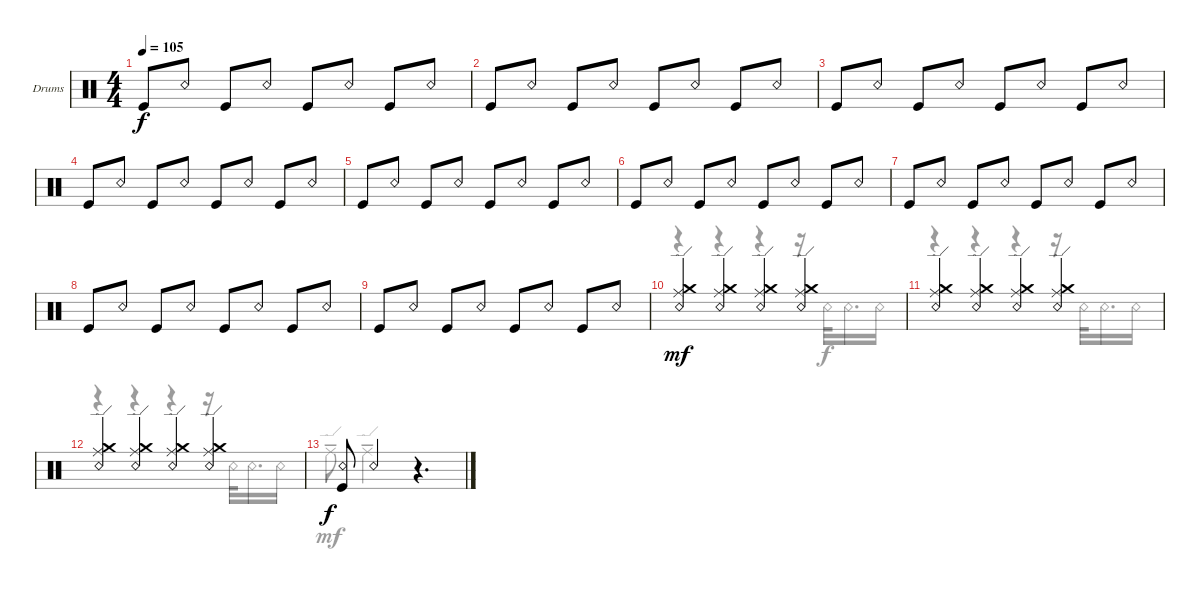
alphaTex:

\bracketExtendMode groupsimilarinstruments
\firstSystemTrackNameOrientation horizontal
\otherSystemsTrackNameOrientation horizontal
\track ("Drumkit" "Drums") {instrument percussion}
\staff {score}
\articulation defaults
\voice
\ts (4 4)
\tempo 105
\clef neutral
\ks c "Kick (hit)".8{dy f} "Snare (rim shot)".8 "Kick (hit)".8 "Snare (rim shot)".8 "Kick (hit)".8 "Snare (rim shot)".8 "Kick (hit)".8 "Snare (rim shot)".8
|
"Kick (hit)".8 "Snare (rim shot)".8 "Kick (hit)".8 "Snare (rim shot)".8 "Kick (hit)".8 "Snare (rim shot)".8 "Kick (hit)".8 "Snare (rim shot)".8 |
"Kick (hit)".8 "Snare (rim shot)".8 "Kick (hit)".8 "Snare (rim shot)".8 "Kick (hit)".8 "Snare (rim shot)".8 "Kick (hit)".8 "Snare (rim shot)".8 |
"Kick (hit)".8 "Snare (rim shot)".8 "Kick (hit)".8 "Snare (rim shot)".8 "Kick (hit)".8 "Snare (rim shot)".8 "Kick (hit)".8 "Snare (rim shot)".8 |
"Kick (hit)".8 "Snare (rim shot)".8 "Kick (hit)".8 "Snare (rim shot)".8 "Kick (hit)".8 "Snare (rim shot)".8 "Kick (hit)".8 "Snare (rim shot)".8 |
"Kick (hit)".8 "Snare (rim shot)".8 "Kick (hit)".8 "Snare (rim shot)".8 "Kick (hit)".8 "Snare (rim shot)".8 "Kick (hit)".8 "Snare (rim shot)".8 |
"Kick (hit)".8 "Snare (rim shot)".8 "Kick (hit)".8 "Snare (rim shot)".8 "Kick (hit)".8 "Snare (rim shot)".8 "Kick (hit)".8 "Snare (rim shot)".8 |
"Kick (hit)".8 "Snare (rim shot)".8 "Kick (hit)".8 "Snare (rim shot)".8 "Kick (hit)".8 "Snare (rim shot)".8 "Kick (hit)".8 "Snare (rim shot)".8 |
"Kick (hit)".8 "Snare (rim shot)".8 "Kick (hit)".8 "Snare (rim shot)".8 "Kick (hit)".8 "Snare (rim shot)".8 "Kick (hit)".8 "Snare (rim shot)".8 |
("Crash medium (hit)" "Snare (rim shot)" "Ride (edge)").4{dy mf} ("Crash medium (hit)" "Snare (rim shot)" "Ride (edge)").4 ("Crash medium (hit)" "Snare (rim shot)" "Ride (edge)").4 ("Crash medium (hit)" "Snare (rim shot)" "Ride (edge)").4 |
("Crash medium (hit)" "Snare (rim shot)" "Ride (edge)").4 ("Crash medium (hit)" "Snare (rim shot)" "Ride (edge)").4 ("Crash medium (hit)" "Snare (rim shot)" "Ride (edge)").4 ("Crash medium (hit)" "Snare (rim shot)" "Ride (edge)").4 |
("Crash medium (hit)" "Snare (rim shot)" "Ride (edge)").4 ("Crash medium (hit)" "Snare (rim shot)" "Ride (edge)").4 ("Crash medium (hit)" "Snare (rim shot)" "Ride (edge)").4 ("Crash medium (hit)" "Snare (rim shot)" "Ride (edge)").4 |
("Kick (hit)" "Snare (rim shot)").8{dy f} "Snare (rim shot)".2 r.4{d} |
\voice
\clef neutral
\ottava regular
\simile none
\ks c
|
|
|
|
|
|
|
|
|
r.4 r.4 r.4 r.16 "Snare (rim shot)".32 "Snare (rim shot)".16{d} "Snare (rim shot)".16 |
r.4 r.4 r.4 r.16 "Snare (rim shot)".32 "Snare (rim shot)".16{d} "Snare (rim shot)".16 |
r.4 r.4 r.4 r.16 "Snare (rim shot)".32 "Snare (rim shot)".16{d} "Snare (rim shot)".16 |
"Ride (edge)"{ten}.8{dy mf} "Ride (edge)"{ten}.2 r.4{d} |
